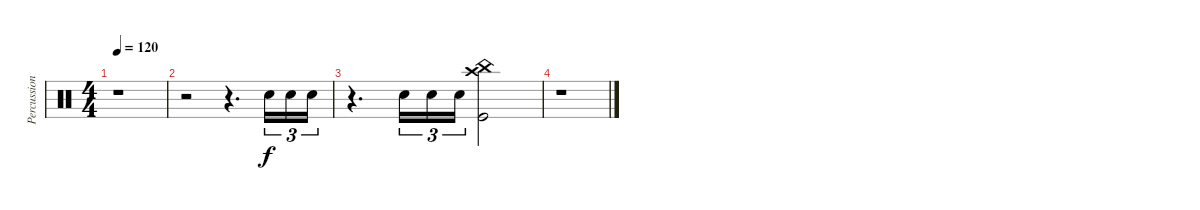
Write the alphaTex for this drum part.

\track ("Percussions" "Percussion") {instrument percussion}
\staff {score}
\articulation defaults
\ts (4 4)
\tempo 120
\clef neutral
\ks c
r.1{dy f} |
r.2 r.4{d} "Snare (hit) 2".16{tu (3 2)} "Snare (hit) 2".16{tu (3 2)} "Snare (hit) 2".16{tu (3 2)} |
r.4{d} "Snare (hit) 2".16{tu (3 2)} "Snare (hit) 2".16{tu (3 2)} "Snare (hit) 2".16{tu (3 2)} ("Crash high (hit)" "China (hit)" "Kick (hit)").2 |
r.1
